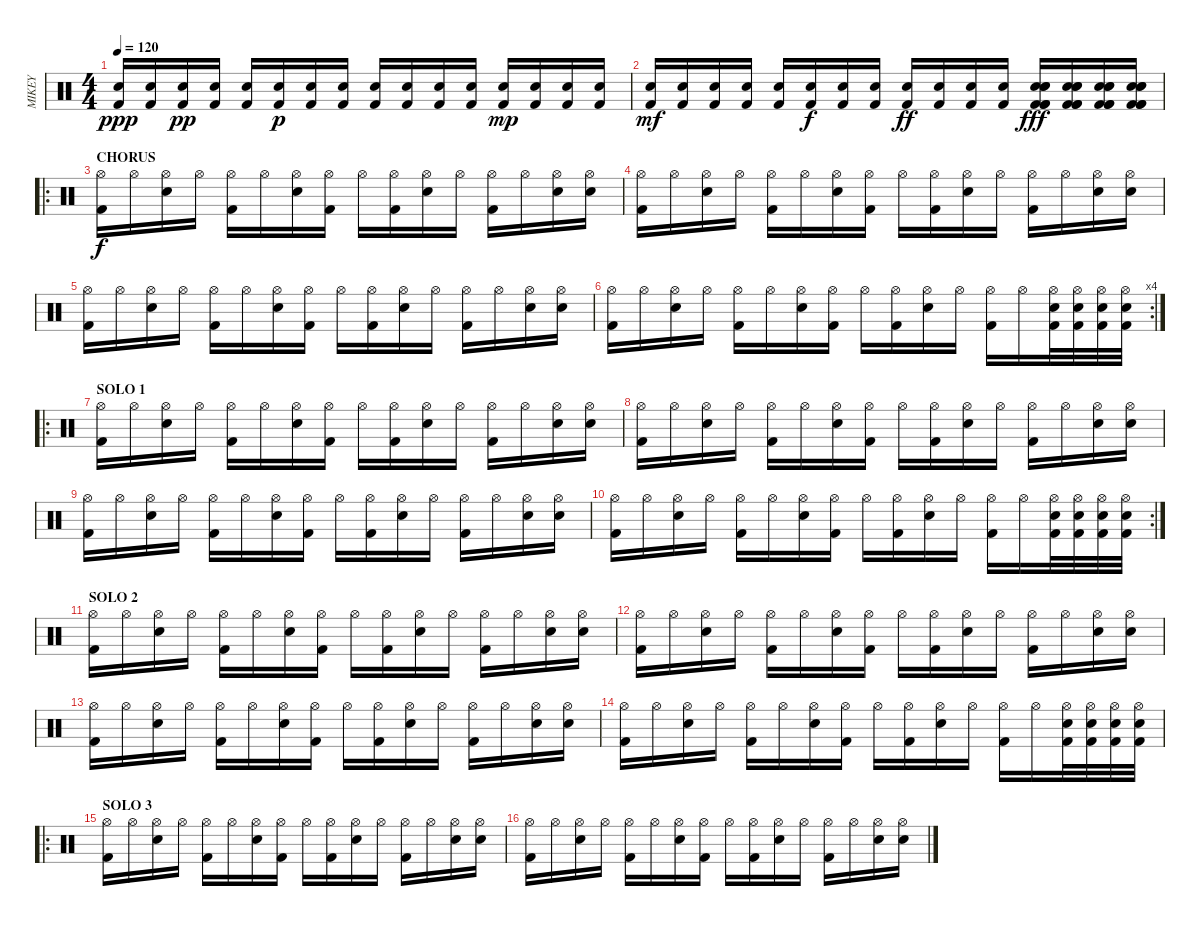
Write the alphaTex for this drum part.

\track ("MIKEY" "MIKEY") {instrument percussion}
\staff {score}
\articulation defaults
\ts (4 4)
\tempo 120
\clef neutral
\ks c
("Kick (hit) 2" "Electric Snare (hit)").16{dy ppp} ("Kick (hit) 2" "Electric Snare (hit)").16 ("Kick (hit) 2" "Electric Snare (hit)").16{dy pp} ("Kick (hit) 2" "Electric Snare (hit)").16 ("Kick (hit) 2" "Electric Snare (hit)").16 ("Kick (hit) 2" "Electric Snare (hit)").16{dy p} ("Kick (hit) 2" "Electric Snare (hit)").16 ("Kick (hit) 2" "Electric Snare (hit)").16 ("Kick (hit) 2" "Electric Snare (hit)").16 ("Kick (hit) 2" "Electric Snare (hit)").16 ("Kick (hit) 2" "Electric Snare (hit)").16 ("Kick (hit) 2" "Electric Snare (hit)").16 ("Kick (hit) 2" "Electric Snare (hit)").16{dy mp} ("Kick (hit) 2" "Electric Snare (hit)").16 ("Kick (hit) 2" "Electric Snare (hit)").16 ("Kick (hit) 2" "Electric Snare (hit)").16 |
("Kick (hit) 2" "Electric Snare (hit)").16{dy mf} ("Kick (hit) 2" "Electric Snare (hit)").16 ("Kick (hit) 2" "Electric Snare (hit)").16 ("Kick (hit) 2" "Electric Snare (hit)").16 ("Kick (hit) 2" "Electric Snare (hit)").16 ("Kick (hit) 2" "Electric Snare (hit)").16{dy f} ("Kick (hit) 2" "Electric Snare (hit)").16 ("Kick (hit) 2" "Electric Snare (hit)").16 ("Kick (hit) 2" "Electric Snare (hit)").16{dy ff} ("Kick (hit) 2" "Electric Snare (hit)").16 ("Kick (hit) 2" "Electric Snare (hit)").16 ("Kick (hit) 2" "Electric Snare (hit)").16 ("Electric Snare (hit)" "Kick (hit) 2" "Electric Snare (hit)" "Kick (hit) 2" "Kick (hit) 2" "Electric Snare (hit)").16{dy fff} ("Electric Snare (hit)" "Kick (hit) 2" "Electric Snare (hit)" "Kick (hit) 2" "Kick (hit) 2" "Electric Snare (hit)").16 ("Electric Snare (hit)" "Kick (hit) 2" "Electric Snare (hit)" "Kick (hit) 2" "Kick (hit) 2" "Electric Snare (hit)").16 ("Electric Snare (hit)" "Kick (hit) 2" "Electric Snare (hit)" "Kick (hit) 2" "Kick (hit) 2" "Electric Snare (hit)").16 |
\ro
\section ("" "CHORUS")
("Kick (hit) 2" "Hi-Hat (open)").16{dy f} "Hi-Hat (open)".16 ("Electric Snare (hit)" "Hi-Hat (open)").16 "Hi-Hat (open)".16 ("Kick (hit) 2" "Hi-Hat (open)").16 "Hi-Hat (open)".16 ("Electric Snare (hit)" "Hi-Hat (open)").16 ("Kick (hit) 2" "Hi-Hat (open)").16 "Hi-Hat (open)".16 ("Kick (hit) 2" "Hi-Hat (open)").16 ("Electric Snare (hit)" "Hi-Hat (open)").16 "Hi-Hat (open)".16 ("Kick (hit) 2" "Hi-Hat (open)").16 "Hi-Hat (open)".16 ("Electric Snare (hit)" "Hi-Hat (open)").16 ("Electric Snare (hit)" "Hi-Hat (open)").16 |
("Kick (hit) 2" "Hi-Hat (open)").16 "Hi-Hat (open)".16 ("Electric Snare (hit)" "Hi-Hat (open)").16 "Hi-Hat (open)".16 ("Kick (hit) 2" "Hi-Hat (open)").16 "Hi-Hat (open)".16 ("Electric Snare (hit)" "Hi-Hat (open)").16 ("Kick (hit) 2" "Hi-Hat (open)").16 "Hi-Hat (open)".16 ("Kick (hit) 2" "Hi-Hat (open)").16 ("Electric Snare (hit)" "Hi-Hat (open)").16 "Hi-Hat (open)".16 ("Kick (hit) 2" "Hi-Hat (open)").16 "Hi-Hat (open)".16 ("Electric Snare (hit)" "Hi-Hat (open)").16 ("Electric Snare (hit)" "Hi-Hat (open)").16 |
("Kick (hit) 2" "Hi-Hat (open)").16 "Hi-Hat (open)".16 ("Electric Snare (hit)" "Hi-Hat (open)").16 "Hi-Hat (open)".16 ("Kick (hit) 2" "Hi-Hat (open)").16 "Hi-Hat (open)".16 ("Electric Snare (hit)" "Hi-Hat (open)").16 ("Kick (hit) 2" "Hi-Hat (open)").16 "Hi-Hat (open)".16 ("Kick (hit) 2" "Hi-Hat (open)").16 ("Electric Snare (hit)" "Hi-Hat (open)").16 "Hi-Hat (open)".16 ("Kick (hit) 2" "Hi-Hat (open)").16 "Hi-Hat (open)".16 ("Electric Snare (hit)" "Hi-Hat (open)").16 ("Electric Snare (hit)" "Hi-Hat (open)").16 |
\rc 4
("Kick (hit) 2" "Hi-Hat (open)").16 "Hi-Hat (open)".16 ("Electric Snare (hit)" "Hi-Hat (open)").16 "Hi-Hat (open)".16 ("Kick (hit) 2" "Hi-Hat (open)").16 "Hi-Hat (open)".16 ("Electric Snare (hit)" "Hi-Hat (open)").16 ("Kick (hit) 2" "Hi-Hat (open)").16 "Hi-Hat (open)".16 ("Kick (hit) 2" "Hi-Hat (open)").16 ("Electric Snare (hit)" "Hi-Hat (open)").16 "Hi-Hat (open)".16 ("Kick (hit) 2" "Hi-Hat (open)").16 "Hi-Hat (open)".16 ("Kick (hit) 2" "Electric Snare (hit)" "Hi-Hat (open)").32 ("Kick (hit) 2" "Electric Snare (hit)" "Hi-Hat (open)").32 ("Kick (hit) 2" "Electric Snare (hit)" "Hi-Hat (open)").32 ("Kick (hit) 2" "Electric Snare (hit)" "Hi-Hat (open)").32 |
\ro
\section ("" "SOLO 1")
("Kick (hit) 2" "Hi-Hat (open)").16 "Hi-Hat (open)".16 ("Electric Snare (hit)" "Hi-Hat (open)").16 "Hi-Hat (open)".16 ("Kick (hit) 2" "Hi-Hat (open)").16 "Hi-Hat (open)".16 ("Electric Snare (hit)" "Hi-Hat (open)").16 ("Kick (hit) 2" "Hi-Hat (open)").16 "Hi-Hat (open)".16 ("Kick (hit) 2" "Hi-Hat (open)").16 ("Electric Snare (hit)" "Hi-Hat (open)").16 "Hi-Hat (open)".16 ("Kick (hit) 2" "Hi-Hat (open)").16 "Hi-Hat (open)".16 ("Electric Snare (hit)" "Hi-Hat (open)").16 ("Electric Snare (hit)" "Hi-Hat (open)").16 |
("Kick (hit) 2" "Hi-Hat (open)").16 "Hi-Hat (open)".16 ("Electric Snare (hit)" "Hi-Hat (open)").16 "Hi-Hat (open)".16 ("Kick (hit) 2" "Hi-Hat (open)").16 "Hi-Hat (open)".16 ("Electric Snare (hit)" "Hi-Hat (open)").16 ("Kick (hit) 2" "Hi-Hat (open)").16 "Hi-Hat (open)".16 ("Kick (hit) 2" "Hi-Hat (open)").16 ("Electric Snare (hit)" "Hi-Hat (open)").16 "Hi-Hat (open)".16 ("Kick (hit) 2" "Hi-Hat (open)").16 "Hi-Hat (open)".16 ("Electric Snare (hit)" "Hi-Hat (open)").16 ("Electric Snare (hit)" "Hi-Hat (open)").16 |
("Kick (hit) 2" "Hi-Hat (open)").16 "Hi-Hat (open)".16 ("Electric Snare (hit)" "Hi-Hat (open)").16 "Hi-Hat (open)".16 ("Kick (hit) 2" "Hi-Hat (open)").16 "Hi-Hat (open)".16 ("Electric Snare (hit)" "Hi-Hat (open)").16 ("Kick (hit) 2" "Hi-Hat (open)").16 "Hi-Hat (open)".16 ("Kick (hit) 2" "Hi-Hat (open)").16 ("Electric Snare (hit)" "Hi-Hat (open)").16 "Hi-Hat (open)".16 ("Kick (hit) 2" "Hi-Hat (open)").16 "Hi-Hat (open)".16 ("Electric Snare (hit)" "Hi-Hat (open)").16 ("Electric Snare (hit)" "Hi-Hat (open)").16 |
\rc 2
("Kick (hit) 2" "Hi-Hat (open)").16 "Hi-Hat (open)".16 ("Electric Snare (hit)" "Hi-Hat (open)").16 "Hi-Hat (open)".16 ("Kick (hit) 2" "Hi-Hat (open)").16 "Hi-Hat (open)".16 ("Electric Snare (hit)" "Hi-Hat (open)").16 ("Kick (hit) 2" "Hi-Hat (open)").16 "Hi-Hat (open)".16 ("Kick (hit) 2" "Hi-Hat (open)").16 ("Electric Snare (hit)" "Hi-Hat (open)").16 "Hi-Hat (open)".16 ("Kick (hit) 2" "Hi-Hat (open)").16 "Hi-Hat (open)".16 ("Kick (hit) 2" "Electric Snare (hit)" "Hi-Hat (open)").32 ("Kick (hit) 2" "Electric Snare (hit)" "Hi-Hat (open)").32 ("Kick (hit) 2" "Electric Snare (hit)" "Hi-Hat (open)").32 ("Kick (hit) 2" "Electric Snare (hit)" "Hi-Hat (open)").32 |
\section ("" "SOLO 2")
("Kick (hit) 2" "Hi-Hat (open)").16 "Hi-Hat (open)".16 ("Electric Snare (hit)" "Hi-Hat (open)").16 "Hi-Hat (open)".16 ("Kick (hit) 2" "Hi-Hat (open)").16 "Hi-Hat (open)".16 ("Electric Snare (hit)" "Hi-Hat (open)").16 ("Kick (hit) 2" "Hi-Hat (open)").16 "Hi-Hat (open)".16 ("Kick (hit) 2" "Hi-Hat (open)").16 ("Electric Snare (hit)" "Hi-Hat (open)").16 "Hi-Hat (open)".16 ("Kick (hit) 2" "Hi-Hat (open)").16 "Hi-Hat (open)".16 ("Electric Snare (hit)" "Hi-Hat (open)").16 ("Electric Snare (hit)" "Hi-Hat (open)").16 |
("Kick (hit) 2" "Hi-Hat (open)").16 "Hi-Hat (open)".16 ("Electric Snare (hit)" "Hi-Hat (open)").16 "Hi-Hat (open)".16 ("Kick (hit) 2" "Hi-Hat (open)").16 "Hi-Hat (open)".16 ("Electric Snare (hit)" "Hi-Hat (open)").16 ("Kick (hit) 2" "Hi-Hat (open)").16 "Hi-Hat (open)".16 ("Kick (hit) 2" "Hi-Hat (open)").16 ("Electric Snare (hit)" "Hi-Hat (open)").16 "Hi-Hat (open)".16 ("Kick (hit) 2" "Hi-Hat (open)").16 "Hi-Hat (open)".16 ("Electric Snare (hit)" "Hi-Hat (open)").16 ("Electric Snare (hit)" "Hi-Hat (open)").16 |
("Kick (hit) 2" "Hi-Hat (open)").16 "Hi-Hat (open)".16 ("Electric Snare (hit)" "Hi-Hat (open)").16 "Hi-Hat (open)".16 ("Kick (hit) 2" "Hi-Hat (open)").16 "Hi-Hat (open)".16 ("Electric Snare (hit)" "Hi-Hat (open)").16 ("Kick (hit) 2" "Hi-Hat (open)").16 "Hi-Hat (open)".16 ("Kick (hit) 2" "Hi-Hat (open)").16 ("Electric Snare (hit)" "Hi-Hat (open)").16 "Hi-Hat (open)".16 ("Kick (hit) 2" "Hi-Hat (open)").16 "Hi-Hat (open)".16 ("Electric Snare (hit)" "Hi-Hat (open)").16 ("Electric Snare (hit)" "Hi-Hat (open)").16 |
("Kick (hit) 2" "Hi-Hat (open)").16 "Hi-Hat (open)".16 ("Electric Snare (hit)" "Hi-Hat (open)").16 "Hi-Hat (open)".16 ("Kick (hit) 2" "Hi-Hat (open)").16 "Hi-Hat (open)".16 ("Electric Snare (hit)" "Hi-Hat (open)").16 ("Kick (hit) 2" "Hi-Hat (open)").16 "Hi-Hat (open)".16 ("Kick (hit) 2" "Hi-Hat (open)").16 ("Electric Snare (hit)" "Hi-Hat (open)").16 "Hi-Hat (open)".16 ("Kick (hit) 2" "Hi-Hat (open)").16 "Hi-Hat (open)".16 ("Kick (hit) 2" "Electric Snare (hit)" "Hi-Hat (open)").32 ("Kick (hit) 2" "Electric Snare (hit)" "Hi-Hat (open)").32 ("Kick (hit) 2" "Electric Snare (hit)" "Hi-Hat (open)").32 ("Kick (hit) 2" "Electric Snare (hit)" "Hi-Hat (open)").32 |
\ro
\section ("" "SOLO 3")
("Kick (hit) 2" "Hi-Hat (open)").16 "Hi-Hat (open)".16 ("Electric Snare (hit)" "Hi-Hat (open)").16 "Hi-Hat (open)".16 ("Kick (hit) 2" "Hi-Hat (open)").16 "Hi-Hat (open)".16 ("Electric Snare (hit)" "Hi-Hat (open)").16 ("Kick (hit) 2" "Hi-Hat (open)").16 "Hi-Hat (open)".16 ("Kick (hit) 2" "Hi-Hat (open)").16 ("Electric Snare (hit)" "Hi-Hat (open)").16 "Hi-Hat (open)".16 ("Kick (hit) 2" "Hi-Hat (open)").16 "Hi-Hat (open)".16 ("Electric Snare (hit)" "Hi-Hat (open)").16 ("Electric Snare (hit)" "Hi-Hat (open)").16 |
("Kick (hit) 2" "Hi-Hat (open)").16 "Hi-Hat (open)".16 ("Electric Snare (hit)" "Hi-Hat (open)").16 "Hi-Hat (open)".16 ("Kick (hit) 2" "Hi-Hat (open)").16 "Hi-Hat (open)".16 ("Electric Snare (hit)" "Hi-Hat (open)").16 ("Kick (hit) 2" "Hi-Hat (open)").16 "Hi-Hat (open)".16 ("Kick (hit) 2" "Hi-Hat (open)").16 ("Electric Snare (hit)" "Hi-Hat (open)").16 "Hi-Hat (open)".16 ("Kick (hit) 2" "Hi-Hat (open)").16 "Hi-Hat (open)".16 ("Electric Snare (hit)" "Hi-Hat (open)").16 ("Electric Snare (hit)" "Hi-Hat (open)").16
